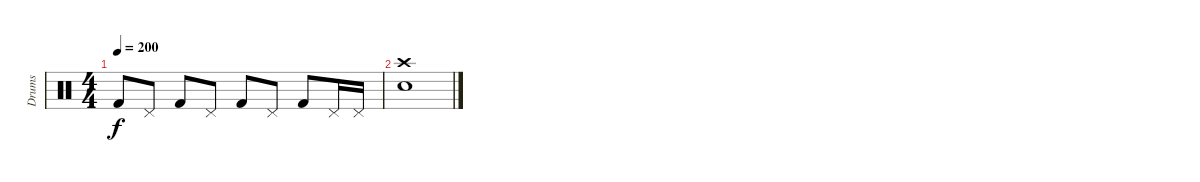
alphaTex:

\track ("Drums" "Drums") {instrument percussion}
\staff {score}
\articulation defaults
\ts (4 4)
\tempo 200
\clef neutral
\ks c "Kick (hit) 2".8{dy f} "Pedal Hi-Hat (hit)".8 "Kick (hit) 2".8 "Pedal Hi-Hat (hit)".8 "Kick (hit) 2".8 "Pedal Hi-Hat (hit)".8 "Kick (hit) 2".8 "Pedal Hi-Hat (hit)".16 "Pedal Hi-Hat (hit)".16
|
("Crash high (hit)" "Snare (hit) 2").1
